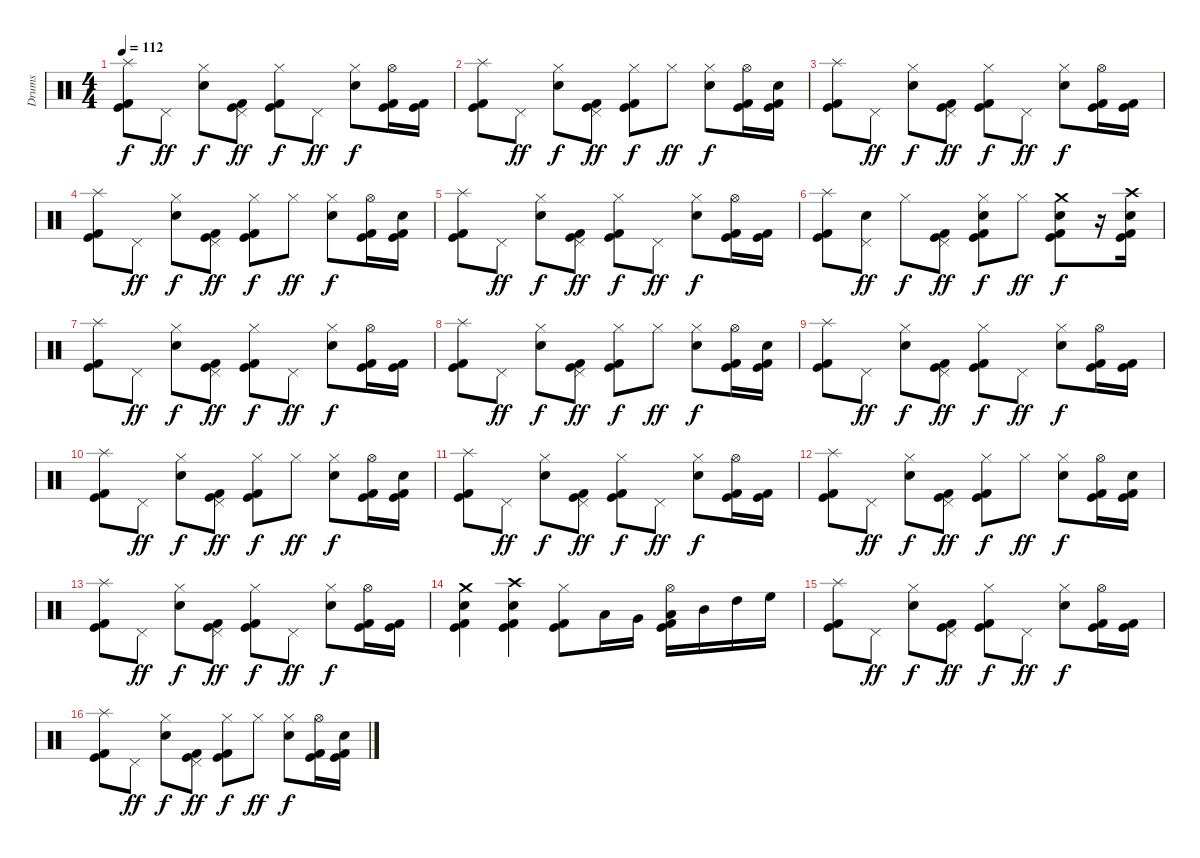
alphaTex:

\track ("Drums" "Drums") {instrument percussion}
\staff {score}
\articulation defaults
\ts (4 4)
\tempo 112
\clef neutral
\ks c
("Splash (hit)" "Kick (hit) 2" "Kick (hit)").8{dy f} "Pedal Hi-Hat (hit)".8{dy ff} ("Hi-Hat (closed)" "Electric Snare (hit)").8{dy f} ("Pedal Hi-Hat (hit)" "Kick (hit)" "Kick (hit) 2").8{dy ff} ("Hi-Hat (closed)" "Kick (hit)" "Kick (hit) 2").8{dy f} "Pedal Hi-Hat (hit)".8{dy ff} ("Hi-Hat (closed)" "Electric Snare (hit)").8{dy f} ("Hi-Hat (open)" "Kick (hit) 2" "Kick (hit)").16 ("Kick (hit) 2" "Kick (hit)").16 |
("Splash (hit)" "Kick (hit) 2" "Kick (hit)").8 "Pedal Hi-Hat (hit)".8{dy ff} ("Hi-Hat (closed)" "Electric Snare (hit)").8{dy f} ("Pedal Hi-Hat (hit)" "Kick (hit)" "Kick (hit) 2").8{dy ff} ("Hi-Hat (closed)" "Kick (hit)" "Kick (hit) 2").8{dy f} "Hi-Hat (closed)".8{dy ff} ("Hi-Hat (closed)" "Electric Snare (hit)").8{dy f} ("Hi-Hat (open)" "Kick (hit) 2" "Kick (hit)").16 ("Electric Snare (hit)" "Kick (hit) 2" "Kick (hit)").16 |
("Splash (hit)" "Kick (hit) 2" "Kick (hit)").8 "Pedal Hi-Hat (hit)".8{dy ff} ("Hi-Hat (closed)" "Electric Snare (hit)").8{dy f} ("Pedal Hi-Hat (hit)" "Kick (hit)" "Kick (hit) 2").8{dy ff} ("Hi-Hat (closed)" "Kick (hit)" "Kick (hit) 2").8{dy f} "Pedal Hi-Hat (hit)".8{dy ff} ("Hi-Hat (closed)" "Electric Snare (hit)").8{dy f} ("Hi-Hat (open)" "Kick (hit) 2" "Kick (hit)").16 ("Kick (hit) 2" "Kick (hit)").16 |
("Splash (hit)" "Kick (hit) 2" "Kick (hit)").8 "Pedal Hi-Hat (hit)".8{dy ff} ("Hi-Hat (closed)" "Electric Snare (hit)").8{dy f} ("Pedal Hi-Hat (hit)" "Kick (hit)" "Kick (hit) 2").8{dy ff} ("Hi-Hat (closed)" "Kick (hit)" "Kick (hit) 2").8{dy f} "Hi-Hat (closed)".8{dy ff} ("Hi-Hat (closed)" "Electric Snare (hit)").8{dy f} ("Hi-Hat (open)" "Kick (hit) 2" "Kick (hit)").16 ("Electric Snare (hit)" "Kick (hit) 2" "Kick (hit)").16 |
("Splash (hit)" "Kick (hit) 2" "Kick (hit)").8 "Pedal Hi-Hat (hit)".8{dy ff} ("Hi-Hat (closed)" "Electric Snare (hit)").8{dy f} ("Pedal Hi-Hat (hit)" "Kick (hit)" "Kick (hit) 2").8{dy ff} ("Hi-Hat (closed)" "Kick (hit)" "Kick (hit) 2").8{dy f} "Pedal Hi-Hat (hit)".8{dy ff} ("Hi-Hat (closed)" "Electric Snare (hit)").8{dy f} ("Hi-Hat (open)" "Kick (hit) 2" "Kick (hit)").16 ("Kick (hit) 2" "Kick (hit)").16 |
("Splash (hit)" "Kick (hit) 2" "Kick (hit)").8 ("Pedal Hi-Hat (hit)" "Electric Snare (hit)").8{dy ff} "Hi-Hat (closed)".8{dy f} ("Pedal Hi-Hat (hit)" "Kick (hit)" "Kick (hit) 2").8{dy ff} ("Hi-Hat (closed)" "Electric Snare (hit)" "Kick (hit)" "Kick (hit) 2").8{dy f} "Hi-Hat (closed)".8{dy ff} ("Crash medium (hit)" "Electric Snare (hit)" "Kick (hit) 2" "Kick (hit)").8{dy f} r.16 ("Crash high (hit)" "Electric Snare (hit)" "Kick (hit) 2" "Kick (hit)").16 |
("Splash (hit)" "Kick (hit) 2" "Kick (hit)").8 "Pedal Hi-Hat (hit)".8{dy ff} ("Hi-Hat (closed)" "Electric Snare (hit)").8{dy f} ("Pedal Hi-Hat (hit)" "Kick (hit)" "Kick (hit) 2").8{dy ff} ("Hi-Hat (closed)" "Kick (hit)" "Kick (hit) 2").8{dy f} "Pedal Hi-Hat (hit)".8{dy ff} ("Hi-Hat (closed)" "Electric Snare (hit)").8{dy f} ("Hi-Hat (open)" "Kick (hit) 2" "Kick (hit)").16 ("Kick (hit) 2" "Kick (hit)").16 |
("Splash (hit)" "Kick (hit) 2" "Kick (hit)").8 "Pedal Hi-Hat (hit)".8{dy ff} ("Hi-Hat (closed)" "Electric Snare (hit)").8{dy f} ("Pedal Hi-Hat (hit)" "Kick (hit)" "Kick (hit) 2").8{dy ff} ("Hi-Hat (closed)" "Kick (hit)" "Kick (hit) 2").8{dy f} "Hi-Hat (closed)".8{dy ff} ("Hi-Hat (closed)" "Electric Snare (hit)").8{dy f} ("Hi-Hat (open)" "Kick (hit) 2" "Kick (hit)").16 ("Electric Snare (hit)" "Kick (hit) 2" "Kick (hit)").16 |
("Splash (hit)" "Kick (hit) 2" "Kick (hit)").8 "Pedal Hi-Hat (hit)".8{dy ff} ("Hi-Hat (closed)" "Electric Snare (hit)").8{dy f} ("Pedal Hi-Hat (hit)" "Kick (hit)" "Kick (hit) 2").8{dy ff} ("Hi-Hat (closed)" "Kick (hit)" "Kick (hit) 2").8{dy f} "Pedal Hi-Hat (hit)".8{dy ff} ("Hi-Hat (closed)" "Electric Snare (hit)").8{dy f} ("Hi-Hat (open)" "Kick (hit) 2" "Kick (hit)").16 ("Kick (hit) 2" "Kick (hit)").16 |
("Splash (hit)" "Kick (hit) 2" "Kick (hit)").8 "Pedal Hi-Hat (hit)".8{dy ff} ("Hi-Hat (closed)" "Electric Snare (hit)").8{dy f} ("Pedal Hi-Hat (hit)" "Kick (hit)" "Kick (hit) 2").8{dy ff} ("Hi-Hat (closed)" "Kick (hit)" "Kick (hit) 2").8{dy f} "Hi-Hat (closed)".8{dy ff} ("Hi-Hat (closed)" "Electric Snare (hit)").8{dy f} ("Hi-Hat (open)" "Kick (hit) 2" "Kick (hit)").16 ("Electric Snare (hit)" "Kick (hit) 2" "Kick (hit)").16 |
("Splash (hit)" "Kick (hit) 2" "Kick (hit)").8 "Pedal Hi-Hat (hit)".8{dy ff} ("Hi-Hat (closed)" "Electric Snare (hit)").8{dy f} ("Pedal Hi-Hat (hit)" "Kick (hit)" "Kick (hit) 2").8{dy ff} ("Hi-Hat (closed)" "Kick (hit)" "Kick (hit) 2").8{dy f} "Pedal Hi-Hat (hit)".8{dy ff} ("Hi-Hat (closed)" "Electric Snare (hit)").8{dy f} ("Hi-Hat (open)" "Kick (hit) 2" "Kick (hit)").16 ("Kick (hit) 2" "Kick (hit)").16 |
("Splash (hit)" "Kick (hit) 2" "Kick (hit)").8 "Pedal Hi-Hat (hit)".8{dy ff} ("Hi-Hat (closed)" "Electric Snare (hit)").8{dy f} ("Pedal Hi-Hat (hit)" "Kick (hit)" "Kick (hit) 2").8{dy ff} ("Hi-Hat (closed)" "Kick (hit)" "Kick (hit) 2").8{dy f} "Hi-Hat (closed)".8{dy ff} ("Hi-Hat (closed)" "Electric Snare (hit)").8{dy f} ("Hi-Hat (open)" "Kick (hit) 2" "Kick (hit)").16 ("Electric Snare (hit)" "Kick (hit) 2" "Kick (hit)").16 |
("Splash (hit)" "Kick (hit) 2" "Kick (hit)").8 "Pedal Hi-Hat (hit)".8{dy ff} ("Hi-Hat (closed)" "Electric Snare (hit)").8{dy f} ("Pedal Hi-Hat (hit)" "Kick (hit)" "Kick (hit) 2").8{dy ff} ("Hi-Hat (closed)" "Kick (hit)" "Kick (hit) 2").8{dy f} "Pedal Hi-Hat (hit)".8{dy ff} ("Hi-Hat (closed)" "Electric Snare (hit)").8{dy f} ("Hi-Hat (open)" "Kick (hit) 2" "Kick (hit)").16 ("Kick (hit) 2" "Kick (hit)").16 |
("Crash medium (hit)" "Electric Snare (hit)" "Kick (hit) 2" "Kick (hit)").4 ("Crash high (hit)" "Electric Snare (hit)" "Kick (hit) 2" "Kick (hit)").4 ("Hi-Hat (closed)" "Kick (hit) 2" "Kick (hit)").8 "Low Tom (hit)".16 "Very Low Tom (hit)".16 ("Hi-Hat (open)" "Low Floor Tom (hit)" "Kick (hit) 2" "Kick (hit)").16 "Mid Tom (hit)".16 "High Tom (hit)".16 "High Floor Tom (hit)".16 |
("Splash (hit)" "Kick (hit) 2" "Kick (hit)").8 "Pedal Hi-Hat (hit)".8{dy ff} ("Hi-Hat (closed)" "Electric Snare (hit)").8{dy f} ("Pedal Hi-Hat (hit)" "Kick (hit)" "Kick (hit) 2").8{dy ff} ("Hi-Hat (closed)" "Kick (hit)" "Kick (hit) 2").8{dy f} "Pedal Hi-Hat (hit)".8{dy ff} ("Hi-Hat (closed)" "Electric Snare (hit)").8{dy f} ("Hi-Hat (open)" "Kick (hit) 2" "Kick (hit)").16 ("Kick (hit) 2" "Kick (hit)").16 |
("Splash (hit)" "Kick (hit) 2" "Kick (hit)").8 "Pedal Hi-Hat (hit)".8{dy ff} ("Hi-Hat (closed)" "Electric Snare (hit)").8{dy f} ("Pedal Hi-Hat (hit)" "Kick (hit)" "Kick (hit) 2").8{dy ff} ("Hi-Hat (closed)" "Kick (hit)" "Kick (hit) 2").8{dy f} "Hi-Hat (closed)".8{dy ff} ("Hi-Hat (closed)" "Electric Snare (hit)").8{dy f} ("Hi-Hat (open)" "Kick (hit) 2" "Kick (hit)").16 ("Electric Snare (hit)" "Kick (hit) 2" "Kick (hit)").16
